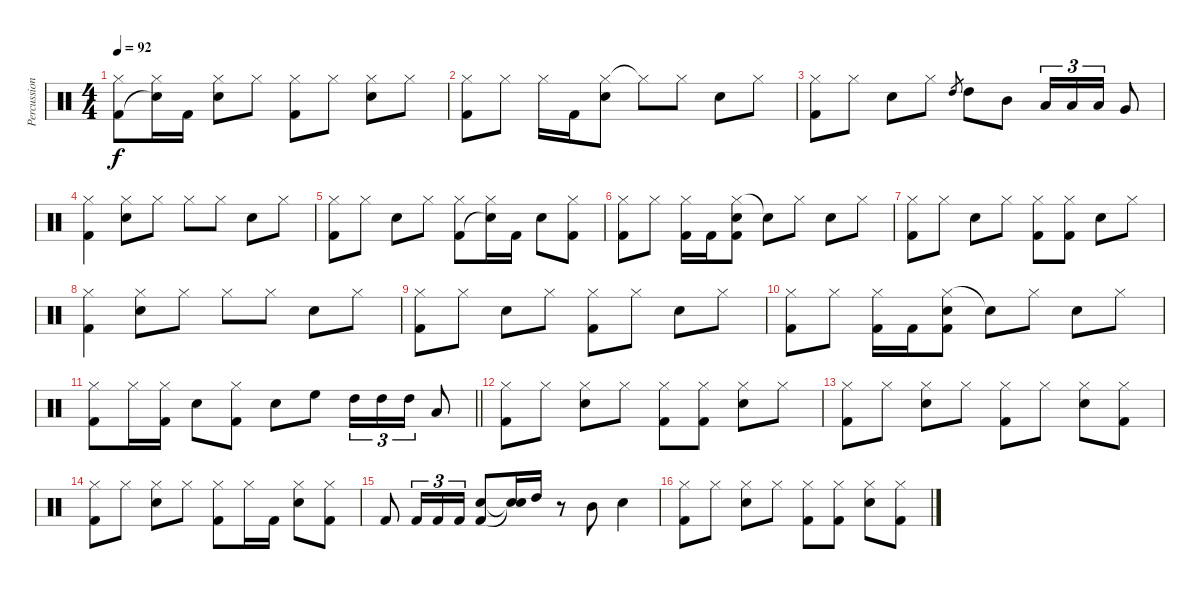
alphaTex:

\track ("Percussion" "Percussion") {instrument percussion}
\staff {score}
\articulation defaults
\ts (4 4)
\tempo 92
\clef neutral
\ks c
("Hi-Hat (closed)" "Kick (hit) 2").8{dy f} ("Hi-Hat (closed)" "Snare (hit)"{t}).16 "Kick (hit) 2".16 ("Hi-Hat (closed)" "Snare (hit) 2").8 "Hi-Hat (closed)".8 ("Hi-Hat (closed)" "Kick (hit) 2").8 "Hi-Hat (closed)".8 ("Hi-Hat (closed)" "Snare (hit) 2").8 "Hi-Hat (closed)".8 |
("Hi-Hat (closed)" "Kick (hit) 2").8 "Hi-Hat (closed)".8 "Hi-Hat (closed)".16 "Kick (hit) 2".16 ("Hi-Hat (closed)" "Snare (hit) 2").8 "Hi-Hat (closed)"{t}.8 "Hi-Hat (closed)".8 "Snare (hit) 2".8 "Hi-Hat (closed)".8 |
("Hi-Hat (closed)" "Kick (hit) 2").8 "Hi-Hat (closed)".8 "Snare (hit) 2".8 "Hi-Hat (closed)".8 "High Tom (hit)".8{gr} "High Tom (hit)".8 "Mid Tom (hit)".8 "Low Tom (hit)".16{tu (3 2)} "Low Tom (hit)".16{tu (3 2)} "Low Tom (hit)".16{tu (3 2)} "Very Low Tom (hit)".8 |
("Hi-Hat (closed)" "Kick (hit) 2").4 ("Hi-Hat (closed)" "Snare (hit) 2").8 "Hi-Hat (closed)".8 "Hi-Hat (closed)".8 "Hi-Hat (closed)".8 "Snare (hit) 2".8 "Hi-Hat (closed)".8 |
("Hi-Hat (closed)" "Kick (hit) 2").8 "Hi-Hat (closed)".8 "Snare (hit) 2".8 "Hi-Hat (closed)".8 ("Hi-Hat (closed)" "Kick (hit) 2").8 ("Hi-Hat (closed)" "Snare (hit)"{t}).16 "Kick (hit) 2".16 "Snare (hit) 2".8 ("Hi-Hat (closed)" "Kick (hit) 2").8 |
("Hi-Hat (closed)" "Kick (hit) 2").8 "Hi-Hat (closed)".8 ("Hi-Hat (closed)" "Kick (hit) 2").16 "Kick (hit) 2".16 ("Hi-Hat (closed)" "Snare (hit) 2" "Kick (hit) 2").8 "Snare (hit)"{t}.8 "Hi-Hat (closed)".8 "Snare (hit) 2".8 "Hi-Hat (closed)".8 |
("Hi-Hat (closed)" "Kick (hit) 2").8 "Hi-Hat (closed)".8 "Snare (hit) 2".8 "Hi-Hat (closed)".8 ("Hi-Hat (closed)" "Kick (hit) 2").8 ("Hi-Hat (closed)" "Kick (hit) 2").8 "Snare (hit) 2".8 "Hi-Hat (closed)".8 |
("Hi-Hat (closed)" "Kick (hit) 2").4 ("Hi-Hat (closed)" "Snare (hit) 2").8 "Hi-Hat (closed)".8 "Hi-Hat (closed)".8 "Hi-Hat (closed)".8 "Snare (hit) 2".8 "Hi-Hat (closed)".8 |
("Hi-Hat (closed)" "Kick (hit) 2").8 "Hi-Hat (closed)".8 "Snare (hit) 2".8 "Hi-Hat (closed)".8 ("Hi-Hat (closed)" "Kick (hit) 2").8 "Hi-Hat (closed)".8 "Snare (hit) 2".8 "Hi-Hat (closed)".8 |
("Hi-Hat (closed)" "Kick (hit) 2").8 "Hi-Hat (closed)".8 ("Hi-Hat (closed)" "Kick (hit) 2").16 "Kick (hit) 2".16 ("Hi-Hat (closed)" "Snare (hit) 2" "Kick (hit) 2").8 "Snare (hit)"{t}.8 "Hi-Hat (closed)".8 "Snare (hit) 2".8 "Hi-Hat (closed)".8 |
\barLineRight lightlight
("Hi-Hat (closed)" "Kick (hit) 2").8 "Hi-Hat (closed)".16 ("Hi-Hat (closed)" "Kick (hit) 2").16 "Snare (hit) 2".8 ("Hi-Hat (closed)" "Kick (hit) 2").8 "Snare (hit) 2".8 "High Floor Tom (hit)".8 "High Tom (hit)".16{tu (3 2)} "High Tom (hit)".16{tu (3 2)} "High Tom (hit)".16{tu (3 2)} "Low Tom (hit)".8 |
("Hi-Hat (closed)" "Kick (hit) 2").8 "Hi-Hat (closed)".8 ("Hi-Hat (closed)" "Snare (hit) 2").8 "Hi-Hat (closed)".8 ("Hi-Hat (closed)" "Kick (hit) 2").8 ("Hi-Hat (closed)" "Kick (hit) 2").8 ("Hi-Hat (closed)" "Snare (hit) 2").8 "Hi-Hat (closed)".8 |
("Hi-Hat (closed)" "Kick (hit) 2").8 "Hi-Hat (closed)".8 ("Hi-Hat (closed)" "Snare (hit) 2").8 "Hi-Hat (closed)".8 ("Hi-Hat (closed)" "Kick (hit) 2").8 "Hi-Hat (closed)".8 ("Hi-Hat (closed)" "Snare (hit) 2").8 ("Hi-Hat (closed)" "Kick (hit) 2").8 |
("Hi-Hat (closed)" "Kick (hit) 2").8 "Hi-Hat (closed)".8 ("Hi-Hat (closed)" "Snare (hit) 2").8 "Hi-Hat (closed)".8 ("Hi-Hat (closed)" "Kick (hit) 2").8 "Hi-Hat (closed)".16 "Kick (hit) 2".16 ("Hi-Hat (closed)" "Snare (hit) 2").8 ("Hi-Hat (closed)" "Kick (hit) 2").8 |
"Kick (hit) 2".8 "Kick (hit) 2".16{tu (3 2)} "Kick (hit) 2".16{tu (3 2)} "Kick (hit) 2".16{tu (3 2)} ("Snare (hit) 2" "Kick (hit) 2").8 ("Snare (hit)"{t} "Snare (hit)"{t}).16 "High Tom (hit)".16 r.8 "Mid Tom (hit)".8 "Snare (hit) 2".4 |
("Hi-Hat (closed)" "Kick (hit) 2").8 "Hi-Hat (closed)".8 ("Hi-Hat (closed)" "Snare (hit) 2").8 "Hi-Hat (closed)".8 ("Hi-Hat (closed)" "Kick (hit) 2").8 ("Hi-Hat (closed)" "Kick (hit) 2").8 ("Hi-Hat (closed)" "Snare (hit) 2").8 ("Hi-Hat (closed)" "Kick (hit) 2").8
